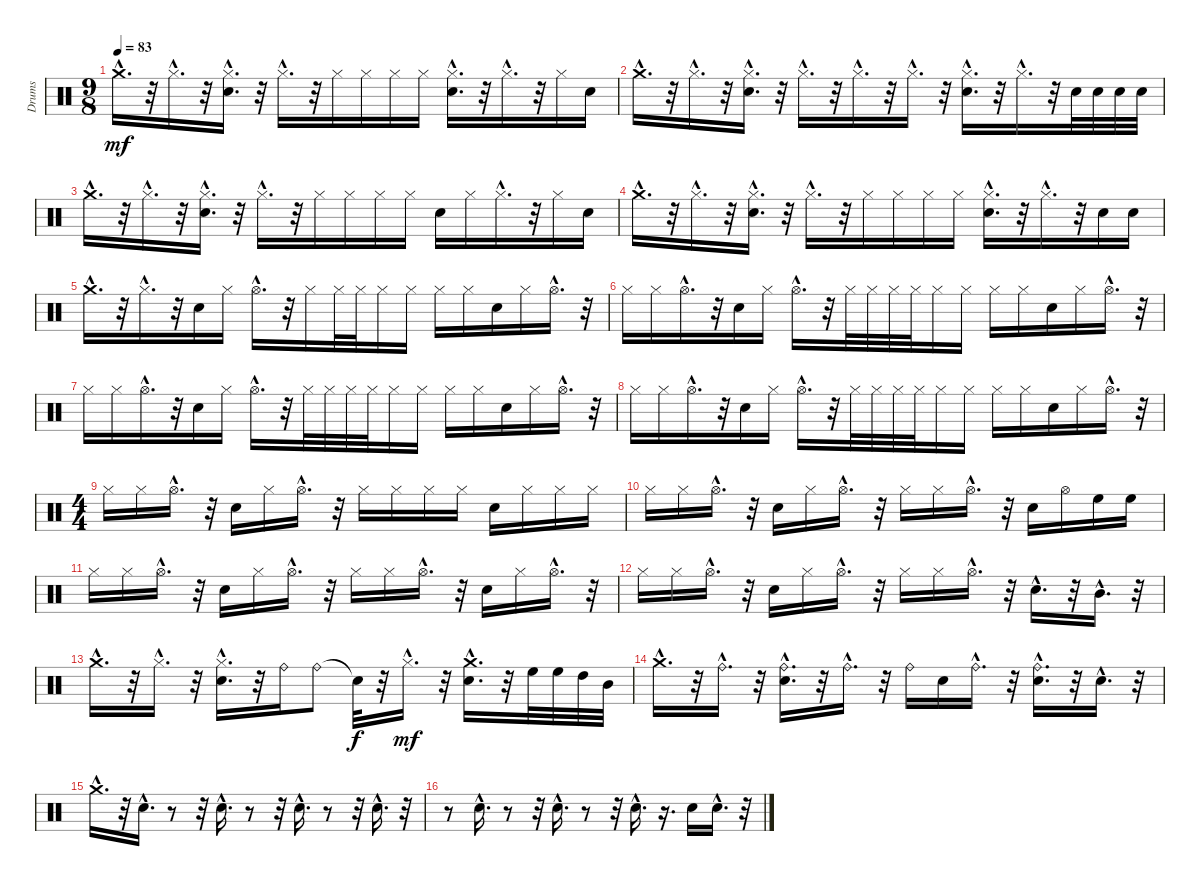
\track ("Drums" "Drums") {instrument percussion}
\staff {score}
\articulation defaults
\ts (9 8)
\tempo 83
\clef neutral
\ks c "Crash medium (hit)"{hac}.16{d dy mf}
r.32 "Hi-Hat (closed)"{hac}.16{d} r.32 ("Electric Snare (hit)"{hac} "Hi-Hat (closed)"{hac}).16{d} r.32 "Hi-Hat (closed)"{hac}.16{d} r.32 "Hi-Hat (closed)".16 "Hi-Hat (closed)".16 "Hi-Hat (closed)".16 "Hi-Hat (closed)".16 ("Electric Snare (hit)"{hac} "Hi-Hat (closed)"{hac}).16{d} r.32 "Hi-Hat (closed)"{hac}.16{d} r.32 "Hi-Hat (closed)".16 "Electric Snare (hit)".16 |
"Crash medium (hit)"{hac}.16{d} r.32 "Hi-Hat (closed)"{hac}.16{d} r.32 ("Hi-Hat (closed)"{hac} "Electric Snare (hit)"{hac}).16{d} r.32 "Hi-Hat (closed)"{hac}.16{d} r.32 "Hi-Hat (closed)"{hac}.16{d} r.32 "Hi-Hat (closed)"{hac}.16{d} r.32 ("Hi-Hat (closed)"{hac} "Electric Snare (hit)"{hac}).16{d} r.32 "Hi-Hat (closed)"{hac}.16{d} r.32 "Electric Snare (hit)".32 "Electric Snare (hit)".32 "Electric Snare (hit)".32 "Electric Snare (hit)".32 |
"Crash medium (hit)"{hac}.16{d} r.32 "Hi-Hat (closed)"{hac}.16{d} r.32 ("Electric Snare (hit)"{hac} "Hi-Hat (closed)"{hac}).16{d} r.32 "Hi-Hat (closed)"{hac}.16{d} r.32 "Hi-Hat (closed)".16 "Hi-Hat (closed)".16 "Hi-Hat (closed)".16 "Hi-Hat (closed)".16 "Electric Snare (hit)".16 "Hi-Hat (closed)".16 "Hi-Hat (closed)"{hac}.16{d} r.32 "Hi-Hat (closed)".16 "Electric Snare (hit)".16 |
"Crash medium (hit)"{hac}.16{d} r.32 "Hi-Hat (closed)"{hac}.16{d} r.32 ("Hi-Hat (closed)"{hac} "Electric Snare (hit)"{hac}).16{d} r.32 "Hi-Hat (closed)"{hac}.16{d} r.32 "Hi-Hat (closed)".16 "Hi-Hat (closed)".16 "Hi-Hat (closed)".16 "Hi-Hat (closed)".16 ("Hi-Hat (closed)"{hac} "Electric Snare (hit)"{hac}).16{d} r.32 "Hi-Hat (closed)"{hac}.16{d} r.32 "Electric Snare (hit)".16 "Electric Snare (hit)".16 |
"Crash medium (hit)"{hac}.16{d} r.32 "Hi-Hat (closed)"{hac}.16{d} r.32 "Electric Snare (hit)".16 "Hi-Hat (closed)".16 "Hi-Hat (open)"{hac}.16{d} r.32 "Hi-Hat (closed)".16 "Hi-Hat (closed)".32 "Hi-Hat (closed)".32 "Hi-Hat (closed)".16 "Hi-Hat (closed)".16 "Hi-Hat (closed)".16 "Hi-Hat (closed)".16 "Electric Snare (hit)".16 "Hi-Hat (closed)".16 "Hi-Hat (open)"{hac}.16{d} r.32 |
"Hi-Hat (closed)".16 "Hi-Hat (closed)".16 "Hi-Hat (open)"{hac}.16{d} r.32 "Electric Snare (hit)".16 "Hi-Hat (closed)".16 "Hi-Hat (open)"{hac}.16{d} r.32 "Hi-Hat (closed)".32 "Hi-Hat (closed)".32 "Hi-Hat (closed)".32 "Hi-Hat (closed)".32 "Hi-Hat (closed)".16 "Hi-Hat (closed)".16 "Hi-Hat (closed)".16 "Hi-Hat (closed)".16 "Electric Snare (hit)".16 "Hi-Hat (closed)".16 "Hi-Hat (open)"{hac}.16{d} r.32 |
"Hi-Hat (closed)".16 "Hi-Hat (closed)".16 "Hi-Hat (open)"{hac}.16{d} r.32 "Electric Snare (hit)".16 "Hi-Hat (closed)".16 "Hi-Hat (open)"{hac}.16{d} r.32 "Hi-Hat (closed)".32 "Hi-Hat (closed)".32 "Hi-Hat (closed)".32 "Hi-Hat (closed)".32 "Hi-Hat (closed)".16 "Hi-Hat (closed)".16 "Hi-Hat (closed)".16 "Hi-Hat (closed)".16 "Electric Snare (hit)".16 "Hi-Hat (closed)".16 "Hi-Hat (open)"{hac}.16{d} r.32 |
"Hi-Hat (closed)".16 "Hi-Hat (closed)".16 "Hi-Hat (open)"{hac}.16{d} r.32 "Electric Snare (hit)".16 "Hi-Hat (closed)".16 "Hi-Hat (open)"{hac}.16{d} r.32 "Hi-Hat (closed)".32 "Hi-Hat (closed)".32 "Hi-Hat (closed)".32 "Hi-Hat (closed)".32 "Hi-Hat (closed)".16 "Hi-Hat (closed)".16 "Hi-Hat (closed)".16 "Hi-Hat (closed)".16 "Electric Snare (hit)".16 "Hi-Hat (closed)".16 "Hi-Hat (open)"{hac}.16{d} r.32 |
\ts (4 4)
"Hi-Hat (closed)".16 "Hi-Hat (closed)".16 "Hi-Hat (open)"{hac}.16{d} r.32 "Electric Snare (hit)".16 "Hi-Hat (closed)".16 "Hi-Hat (open)"{hac}.16{d} r.32 "Hi-Hat (closed)".16 "Hi-Hat (closed)".16 "Hi-Hat (closed)".16 "Hi-Hat (closed)".16 "Electric Snare (hit)".16 "Hi-Hat (closed)".16 "Hi-Hat (closed)".16 "Hi-Hat (closed)".16 |
"Hi-Hat (closed)".16 "Hi-Hat (closed)".16 "Hi-Hat (open)"{hac}.16{d} r.32 "Electric Snare (hit)".16 "Hi-Hat (closed)".16 "Hi-Hat (open)"{hac}.16{d} r.32 "Hi-Hat (closed)".16 "Hi-Hat (closed)".16 "Hi-Hat (open)"{hac}.16{d} r.32 "Electric Snare (hit)".16 "Hi-Hat (open)".16 "High Floor Tom (hit)".16 "High Floor Tom (hit)".16 |
"Hi-Hat (closed)".16 "Hi-Hat (closed)".16 "Hi-Hat (open)"{hac}.16{d} r.32 "Electric Snare (hit)".16 "Hi-Hat (closed)".16 "Hi-Hat (open)"{hac}.16{d} r.32 "Hi-Hat (closed)".16 "Hi-Hat (closed)".16 "Hi-Hat (open)"{hac}.16{d} r.32 "Electric Snare (hit)".16 "Hi-Hat (closed)".16 "Hi-Hat (open)"{hac}.16{d} r.32 |
"Hi-Hat (closed)".16 "Hi-Hat (closed)".16 "Hi-Hat (open)"{hac}.16{d} r.32 "Electric Snare (hit)".16 "Hi-Hat (closed)".16 "Hi-Hat (open)"{hac}.16{d} r.32 "Hi-Hat (closed)".16 "Hi-Hat (closed)".16 "Hi-Hat (open)"{hac}.16{d} r.32 "Electric Snare (hit)"{hac}.16{d} r.32 "Mid Tom (hit)"{hac}.16{d} r.32 |
"Crash medium (hit)"{hac}.16{d} r.32 "Hi-Hat (closed)"{hac}.16{d} r.32 ("Electric Snare (hit)"{hac} "Hi-Hat (closed)"{hac}).16{d} r.32 "Ride (bell)".16 "Ride (bell)".8 "Snare (hit)"{t}.32{dy f} r.32 "Hi-Hat (closed)"{hac}.16{d dy mf} r.32 ("Crash medium (hit)"{hac} "Electric Snare (hit)"{hac}).16{d} r.32 "High Floor Tom (hit)".32 "High Floor Tom (hit)".32 "High Tom (hit)".32 "Mid Tom (hit)".32 |
"Crash medium (hit)"{hac}.16{d} r.32 "Ride (bell)"{hac}.16{d} r.32 ("Electric Snare (hit)"{hac} "Ride (bell)"{hac}).16{d} r.32 "Ride (bell)"{hac}.16{d} r.32 "Ride (bell)".16 "Electric Snare (hit)".16 "Ride (bell)"{hac}.16{d} r.32 ("Ride (bell)"{hac} "Electric Snare (hit)"{hac}).16{d} r.32 "Electric Snare (hit)"{hac}.16{d} r.32 |
"Crash medium (hit)"{hac}.16{d} r.32 "Electric Snare (hit)"{hac}.16{d} r.8 r.32 "Electric Snare (hit)"{hac}.16{d} r.8 r.32 "Electric Snare (hit)"{hac}.16{d} r.8 r.32 "Electric Snare (hit)"{hac}.16{d} r.32 |
r.8 "Electric Snare (hit)"{hac}.16{d} r.8 r.32 "Electric Snare (hit)"{hac}.16{d} r.8 r.32 "Electric Snare (hit)"{hac}.16{d} r.16{d} "Electric Snare (hit)".16 "Electric Snare (hit)"{hac}.16{d} r.32
